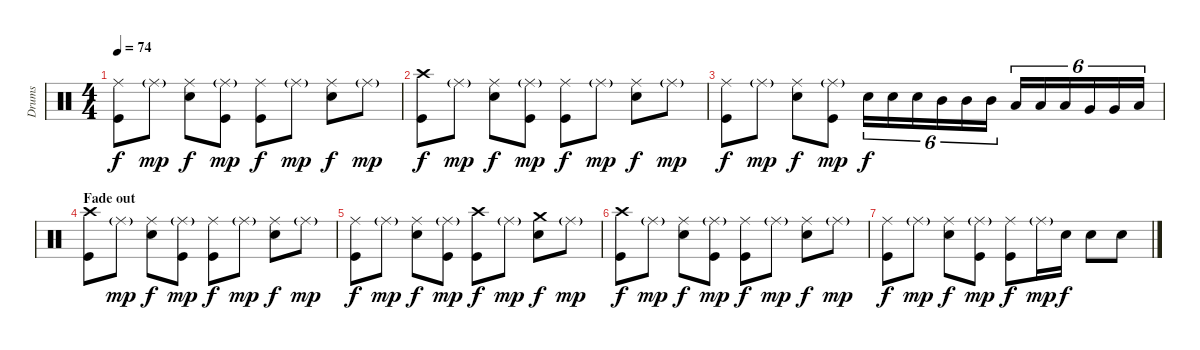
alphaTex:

\track ("Drums" "Drums") {instrument percussion}
\staff {score}
\articulation defaults
\ts (4 4)
\tempo 74
\clef neutral
\ks c
("Ride (middle)" "Kick (hit)").8{dy f} "Ride (middle)"{g}.8{dy mp} ("Ride (middle)" "Snare (hit) 2").8{dy f} ("Ride (middle)"{g} "Kick (hit)").8{dy mp} ("Ride (middle)" "Kick (hit)").8{dy f} "Ride (middle)"{g}.8{dy mp} ("Ride (middle)" "Snare (hit) 2").8{dy f} "Ride (middle)"{g}.8{dy mp} |
("Crash high (hit)" "Kick (hit)").8{dy f} "Ride (middle)"{g}.8{dy mp} ("Ride (middle)" "Snare (hit) 2").8{dy f} ("Ride (middle)"{g} "Kick (hit)").8{dy mp} ("Ride (middle)" "Kick (hit)").8{dy f} "Ride (middle)"{g}.8{dy mp} ("Ride (middle)" "Snare (hit) 2").8{dy f} "Ride (middle)"{g}.8{dy mp} |
("Ride (middle)" "Kick (hit)").8{dy f} "Ride (middle)"{g}.8{dy mp} ("Ride (middle)" "Snare (hit) 2").8{dy f} ("Ride (middle)"{g} "Kick (hit)").8{dy mp} "Snare (hit) 2".16{tu (6 4) dy f} "Snare (hit) 2".16{tu (6 4)} "Snare (hit) 2".16{tu (6 4)} "Mid Tom (hit)".16{tu (6 4)} "Mid Tom (hit)".16{tu (6 4)} "Mid Tom (hit)".16{tu (6 4)} "Low Tom (hit)".16{tu (6 4)} "Low Tom (hit)".16{tu (6 4)} "Low Tom (hit)".16{tu (6 4)} "Very Low Tom (hit)".16{tu (6 4)} "Very Low Tom (hit)".16{tu (6 4)} "Low Floor Tom (hit)".16{tu (6 4)} |
\section ("" "Fade out")
("Crash high (hit)" "Kick (hit)").8 "Ride (middle)"{g}.8{dy mp} ("Ride (middle)" "Snare (hit) 2").8{dy f} ("Ride (middle)"{g} "Kick (hit)").8{dy mp} ("Ride (middle)" "Kick (hit)").8{dy f} "Ride (middle)"{g}.8{dy mp} ("Ride (middle)" "Snare (hit) 2").8{dy f} "Ride (middle)"{g}.8{dy mp} |
("Ride (middle)" "Kick (hit)").8{dy f} "Ride (middle)"{g}.8{dy mp} ("Ride (middle)" "Snare (hit) 2").8{dy f} ("Ride (middle)"{g} "Kick (hit)").8{dy mp} ("Crash high (hit)" "Kick (hit)").8{dy f} "Ride (middle)"{g}.8{dy mp} ("Crash medium (hit)" "Snare (hit) 2").8{dy f} "Ride (middle)"{g}.8{dy mp} |
("Crash high (hit)" "Kick (hit)").8{dy f} "Ride (middle)"{g}.8{dy mp} ("Ride (middle)" "Snare (hit) 2").8{dy f} ("Ride (middle)"{g} "Kick (hit)").8{dy mp} ("Ride (middle)" "Kick (hit)").8{dy f} "Ride (middle)"{g}.8{dy mp} ("Ride (middle)" "Snare (hit) 2").8{dy f} "Ride (middle)"{g}.8{dy mp} |
("Ride (middle)" "Kick (hit)").8{dy f} "Ride (middle)"{g}.8{dy mp} ("Ride (middle)" "Snare (hit) 2").8{dy f} ("Ride (middle)"{g} "Kick (hit)").8{dy mp} ("Ride (middle)" "Kick (hit)").8{dy f} "Ride (middle)"{g}.16{dy mp} "Snare (hit) 2".16{dy f} "Snare (hit) 2".8 "Snare (hit) 2".8
